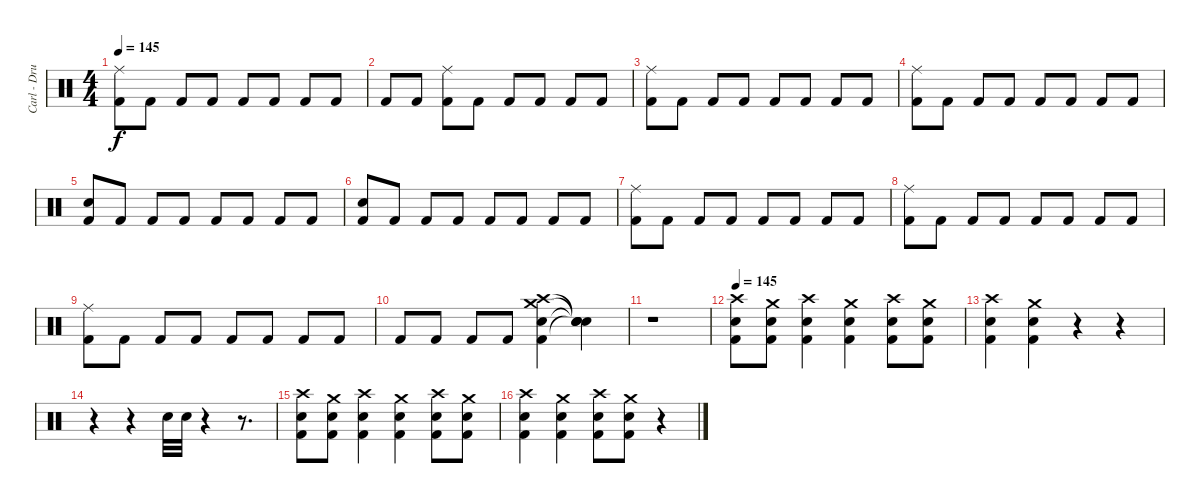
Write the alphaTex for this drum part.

\track ("Carl - Drums" "Carl - Dru") {instrument percussion}
\staff {score}
\articulation defaults
\ts (4 4)
\tempo 145
\clef neutral
\ks c
("Ride (middle)" "Kick (hit) 2").8{dy f} "Kick (hit) 2".8 "Kick (hit) 2".8 "Kick (hit) 2".8 "Kick (hit) 2".8 "Kick (hit) 2".8 "Kick (hit) 2".8 "Kick (hit) 2".8 |
"Kick (hit) 2".8 "Kick (hit) 2".8 ("Ride (middle)" "Kick (hit) 2").8 "Kick (hit) 2".8 "Kick (hit) 2".8 "Kick (hit) 2".8 "Kick (hit) 2".8 "Kick (hit) 2".8 |
("Ride (middle)" "Kick (hit) 2").8 "Kick (hit) 2".8 "Kick (hit) 2".8 "Kick (hit) 2".8 "Kick (hit) 2".8 "Kick (hit) 2".8 "Kick (hit) 2".8 "Kick (hit) 2".8 |
("Ride (middle)" "Kick (hit) 2").8 "Kick (hit) 2".8 "Kick (hit) 2".8 "Kick (hit) 2".8 "Kick (hit) 2".8 "Kick (hit) 2".8 "Kick (hit) 2".8 "Kick (hit) 2".8 |
("Electric Snare (hit)" "Kick (hit) 2").8 "Kick (hit) 2".8 "Kick (hit) 2".8 "Kick (hit) 2".8 "Kick (hit) 2".8 "Kick (hit) 2".8 "Kick (hit) 2".8 "Kick (hit) 2".8 |
("Electric Snare (hit)" "Kick (hit) 2").8 "Kick (hit) 2".8 "Kick (hit) 2".8 "Kick (hit) 2".8 "Kick (hit) 2".8 "Kick (hit) 2".8 "Kick (hit) 2".8 "Kick (hit) 2".8 |
("Ride (middle)" "Kick (hit) 2").8 "Kick (hit) 2".8 "Kick (hit) 2".8 "Kick (hit) 2".8 "Kick (hit) 2".8 "Kick (hit) 2".8 "Kick (hit) 2".8 "Kick (hit) 2".8 |
("Ride (middle)" "Kick (hit) 2").8 "Kick (hit) 2".8 "Kick (hit) 2".8 "Kick (hit) 2".8 "Kick (hit) 2".8 "Kick (hit) 2".8 "Kick (hit) 2".8 "Kick (hit) 2".8 |
("Ride (middle)" "Kick (hit) 2").8 "Kick (hit) 2".8 "Kick (hit) 2".8 "Kick (hit) 2".8 "Kick (hit) 2".8 "Kick (hit) 2".8 "Kick (hit) 2".8 "Kick (hit) 2".8 |
"Kick (hit) 2".8 "Kick (hit) 2".8 "Kick (hit) 2".8 "Kick (hit) 2".8 ("Crash medium (hit)" "Crash high (hit)" "Electric Snare (hit)" "Kick (hit) 2").4 ("Snare (hit)"{t} "Snare (hit)"{t} "Snare (hit)"{t} "Snare (hit)"{t}).4 |
r.1 |
\tempo 145
("Crash high (hit)" "Electric Snare (hit)" "Kick (hit) 2").8 ("Crash medium (hit)" "Electric Snare (hit)" "Kick (hit) 2").8 ("Crash high (hit)" "Electric Snare (hit)" "Kick (hit) 2").4 ("Crash medium (hit)" "Electric Snare (hit)" "Kick (hit) 2").4 ("Crash high (hit)" "Electric Snare (hit)" "Kick (hit) 2").8 ("Crash medium (hit)" "Electric Snare (hit)" "Kick (hit) 2").8 |
("Crash high (hit)" "Electric Snare (hit)" "Kick (hit) 2").4 ("Crash medium (hit)" "Electric Snare (hit)" "Kick (hit) 2").4 r.4 r.4 |
r.4 r.4 "Electric Snare (hit)".32 "Electric Snare (hit)".32 r.4 r.8{d} |
("Crash high (hit)" "Electric Snare (hit)" "Kick (hit) 2").8 ("Crash medium (hit)" "Electric Snare (hit)" "Kick (hit) 2").8 ("Crash high (hit)" "Electric Snare (hit)" "Kick (hit) 2").4 ("Crash medium (hit)" "Electric Snare (hit)" "Kick (hit) 2").4 ("Crash high (hit)" "Electric Snare (hit)" "Kick (hit) 2").8 ("Crash medium (hit)" "Electric Snare (hit)" "Kick (hit) 2").8 |
("Crash high (hit)" "Electric Snare (hit)" "Kick (hit) 2").4 ("Crash medium (hit)" "Electric Snare (hit)" "Kick (hit) 2").4 ("Crash high (hit)" "Electric Snare (hit)" "Kick (hit) 2").8 ("Crash medium (hit)" "Electric Snare (hit)" "Kick (hit) 2").8 r.4
